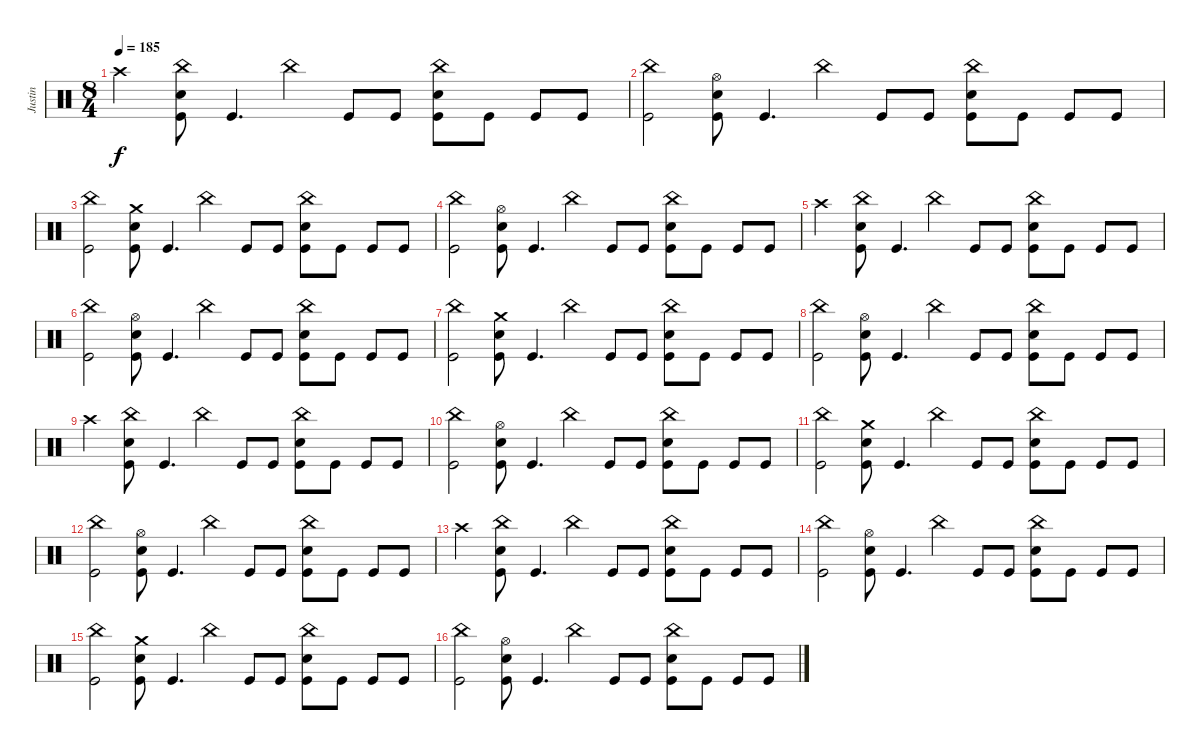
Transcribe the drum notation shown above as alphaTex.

\track ("Justin" "Justin") {instrument percussion}
\staff {score}
\articulation defaults
\ts (8 4)
\tempo 185
\clef neutral
\ks c "Crash high (hit)".2{dy f}
("China (hit)" "Electric Snare (hit)" "Kick (hit)").8 "Kick (hit)".4{d} "China (hit)".4 "Kick (hit)".8 "Kick (hit)".8 ("China (hit)" "Electric Snare (hit)" "Kick (hit)").8 "Kick (hit)".8 "Kick (hit)".8 "Kick (hit)".8 |
("China (hit)" "Kick (hit)").2 ("Hi-Hat (open)" "Electric Snare (hit)" "Kick (hit)").8 "Kick (hit)".4{d} "China (hit)".4 "Kick (hit)".8 "Kick (hit)".8 ("China (hit)" "Electric Snare (hit)" "Kick (hit)").8 "Kick (hit)".8 "Kick (hit)".8 "Kick (hit)".8 |
("China (hit)" "Kick (hit)").2 ("Crash medium (hit)" "Electric Snare (hit)" "Kick (hit)").8 "Kick (hit)".4{d} "China (hit)".4 "Kick (hit)".8 "Kick (hit)".8 ("China (hit)" "Electric Snare (hit)" "Kick (hit)").8 "Kick (hit)".8 "Kick (hit)".8 "Kick (hit)".8 |
("China (hit)" "Kick (hit)").2 ("Hi-Hat (open)" "Electric Snare (hit)" "Kick (hit)").8 "Kick (hit)".4{d} "China (hit)".4 "Kick (hit)".8 "Kick (hit)".8 ("China (hit)" "Electric Snare (hit)" "Kick (hit)").8 "Kick (hit)".8 "Kick (hit)".8 "Kick (hit)".8 |
"Crash high (hit)".2 ("China (hit)" "Electric Snare (hit)" "Kick (hit)").8 "Kick (hit)".4{d} "China (hit)".4 "Kick (hit)".8 "Kick (hit)".8 ("China (hit)" "Electric Snare (hit)" "Kick (hit)").8 "Kick (hit)".8 "Kick (hit)".8 "Kick (hit)".8 |
("China (hit)" "Kick (hit)").2 ("Hi-Hat (open)" "Electric Snare (hit)" "Kick (hit)").8 "Kick (hit)".4{d} "China (hit)".4 "Kick (hit)".8 "Kick (hit)".8 ("China (hit)" "Electric Snare (hit)" "Kick (hit)").8 "Kick (hit)".8 "Kick (hit)".8 "Kick (hit)".8 |
("China (hit)" "Kick (hit)").2 ("Crash medium (hit)" "Electric Snare (hit)" "Kick (hit)").8 "Kick (hit)".4{d} "China (hit)".4 "Kick (hit)".8 "Kick (hit)".8 ("China (hit)" "Electric Snare (hit)" "Kick (hit)").8 "Kick (hit)".8 "Kick (hit)".8 "Kick (hit)".8 |
("China (hit)" "Kick (hit)").2 ("Hi-Hat (open)" "Electric Snare (hit)" "Kick (hit)").8 "Kick (hit)".4{d} "China (hit)".4 "Kick (hit)".8 "Kick (hit)".8 ("China (hit)" "Electric Snare (hit)" "Kick (hit)").8 "Kick (hit)".8 "Kick (hit)".8 "Kick (hit)".8 |
"Crash high (hit)".2 ("China (hit)" "Electric Snare (hit)" "Kick (hit)").8 "Kick (hit)".4{d} "China (hit)".4 "Kick (hit)".8 "Kick (hit)".8 ("China (hit)" "Electric Snare (hit)" "Kick (hit)").8 "Kick (hit)".8 "Kick (hit)".8 "Kick (hit)".8 |
("China (hit)" "Kick (hit)").2 ("Hi-Hat (open)" "Electric Snare (hit)" "Kick (hit)").8 "Kick (hit)".4{d} "China (hit)".4 "Kick (hit)".8 "Kick (hit)".8 ("China (hit)" "Electric Snare (hit)" "Kick (hit)").8 "Kick (hit)".8 "Kick (hit)".8 "Kick (hit)".8 |
("China (hit)" "Kick (hit)").2 ("Crash medium (hit)" "Electric Snare (hit)" "Kick (hit)").8 "Kick (hit)".4{d} "China (hit)".4 "Kick (hit)".8 "Kick (hit)".8 ("China (hit)" "Electric Snare (hit)" "Kick (hit)").8 "Kick (hit)".8 "Kick (hit)".8 "Kick (hit)".8 |
("China (hit)" "Kick (hit)").2 ("Hi-Hat (open)" "Electric Snare (hit)" "Kick (hit)").8 "Kick (hit)".4{d} "China (hit)".4 "Kick (hit)".8 "Kick (hit)".8 ("China (hit)" "Electric Snare (hit)" "Kick (hit)").8 "Kick (hit)".8 "Kick (hit)".8 "Kick (hit)".8 |
"Crash high (hit)".2 ("China (hit)" "Electric Snare (hit)" "Kick (hit)").8 "Kick (hit)".4{d} "China (hit)".4 "Kick (hit)".8 "Kick (hit)".8 ("China (hit)" "Electric Snare (hit)" "Kick (hit)").8 "Kick (hit)".8 "Kick (hit)".8 "Kick (hit)".8 |
("China (hit)" "Kick (hit)").2 ("Hi-Hat (open)" "Electric Snare (hit)" "Kick (hit)").8 "Kick (hit)".4{d} "China (hit)".4 "Kick (hit)".8 "Kick (hit)".8 ("China (hit)" "Electric Snare (hit)" "Kick (hit)").8 "Kick (hit)".8 "Kick (hit)".8 "Kick (hit)".8 |
("China (hit)" "Kick (hit)").2 ("Crash medium (hit)" "Electric Snare (hit)" "Kick (hit)").8 "Kick (hit)".4{d} "China (hit)".4 "Kick (hit)".8 "Kick (hit)".8 ("China (hit)" "Electric Snare (hit)" "Kick (hit)").8 "Kick (hit)".8 "Kick (hit)".8 "Kick (hit)".8 |
("China (hit)" "Kick (hit)").2 ("Hi-Hat (open)" "Electric Snare (hit)" "Kick (hit)").8 "Kick (hit)".4{d} "China (hit)".4 "Kick (hit)".8 "Kick (hit)".8 ("China (hit)" "Electric Snare (hit)" "Kick (hit)").8 "Kick (hit)".8 "Kick (hit)".8 "Kick (hit)".8
